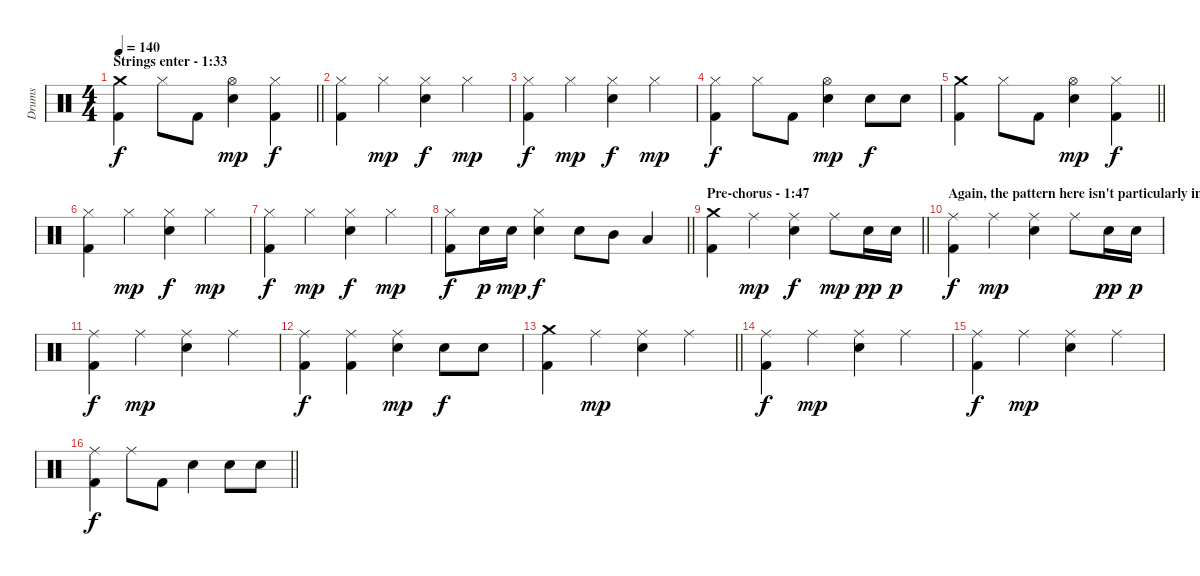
\track ("Drums" "Drums") {instrument percussion}
\staff {score}
\articulation defaults
\ts (4 4)
\section ("" "Strings enter - 1:33")
\tempo 140
\clef neutral
\barLineRight lightlight
\ks c
("Crash medium (hit)" "Kick (hit) 2").4{dy f} "Hi-Hat (closed)".8 "Kick (hit) 2".8 ("Hi-Hat (open)" "Electric Snare (hit)").4{dy mp} ("Hi-Hat (closed)" "Kick (hit) 2").4{dy f} |
("Hi-Hat (closed)" "Kick (hit) 2").4 "Hi-Hat (closed)".4{dy mp} ("Hi-Hat (closed)" "Electric Snare (hit)").4{dy f} "Hi-Hat (closed)".4{dy mp} |
("Hi-Hat (closed)" "Kick (hit) 2").4{dy f} "Hi-Hat (closed)".4{dy mp} ("Hi-Hat (closed)" "Electric Snare (hit)").4{dy f} "Hi-Hat (closed)".4{dy mp} |
("Hi-Hat (closed)" "Kick (hit) 2").4{dy f} "Hi-Hat (closed)".8 "Kick (hit) 2".8 ("Hi-Hat (open)" "Electric Snare (hit)").4{dy mp} "Electric Snare (hit)".8{dy f} "Electric Snare (hit)".8 |
\barLineRight lightlight
("Crash medium (hit)" "Kick (hit) 2").4 "Hi-Hat (closed)".8 "Kick (hit) 2".8 ("Hi-Hat (open)" "Electric Snare (hit)").4{dy mp} ("Hi-Hat (closed)" "Kick (hit) 2").4{dy f} |
("Hi-Hat (closed)" "Kick (hit) 2").4 "Hi-Hat (closed)".4{dy mp} ("Hi-Hat (closed)" "Electric Snare (hit)").4{dy f} "Hi-Hat (closed)".4{dy mp} |
("Hi-Hat (closed)" "Kick (hit) 2").4{dy f} "Hi-Hat (closed)".4{dy mp} ("Hi-Hat (closed)" "Electric Snare (hit)").4{dy f} "Hi-Hat (closed)".4{dy mp} |
\barLineRight lightlight
("Hi-Hat (closed)" "Kick (hit) 2").8{dy f} "Electric Snare (hit)".16{dy p} "Electric Snare (hit)".16{dy mp} ("Hi-Hat (closed)" "Electric Snare (hit)").4{dy f} "Electric Snare (hit)".8 "Mid Tom (hit)".8 "Low Tom (hit)".4 |
\section ("" "Pre-chorus - 1:47")
\barLineRight lightlight
("Crash medium (hit)" "Kick (hit) 2").4 "Ride (middle)".4{dy mp} ("Ride (middle)" "Electric Snare (hit)").4{dy f} "Ride (middle)".8{dy mp} "Electric Snare (hit)".16{dy pp} "Electric Snare (hit)".16{dy p} |
\section ("" "Again, the pattern here isn't particularly important.")
("Ride (middle)" "Kick (hit) 2").4{dy f} "Ride (middle)".4{dy mp} ("Ride (middle)" "Electric Snare (hit)").4 "Ride (middle)".8 "Electric Snare (hit)".16{dy pp} "Electric Snare (hit)".16{dy p} |
("Ride (middle)" "Kick (hit) 2").4{dy f} "Ride (middle)".4{dy mp} ("Ride (middle)" "Electric Snare (hit)").4 "Ride (middle)".4 |
("Ride (middle)" "Kick (hit) 2").4{dy f} ("Ride (middle)" "Kick (hit) 2").4 ("Ride (middle)" "Electric Snare (hit)").4{dy mp} "Electric Snare (hit)".8{dy f} "Electric Snare (hit)".8 |
\barLineRight lightlight
("Crash medium (hit)" "Kick (hit) 2").4 "Ride (middle)".4{dy mp} ("Ride (middle)" "Electric Snare (hit)").4 "Ride (middle)".4 |
("Ride (middle)" "Kick (hit) 2").4{dy f} "Ride (middle)".4{dy mp} ("Ride (middle)" "Electric Snare (hit)").4 "Ride (middle)".4 |
("Ride (middle)" "Kick (hit) 2").4{dy f} "Ride (middle)".4{dy mp} ("Ride (middle)" "Electric Snare (hit)").4 "Ride (middle)".4 |
\barLineRight lightlight
("Ride (middle)" "Kick (hit) 2").4{dy f} "Ride (middle)".8 "Kick (hit) 2".8 "Electric Snare (hit)".4 "Electric Snare (hit)".8 "Electric Snare (hit)".8
